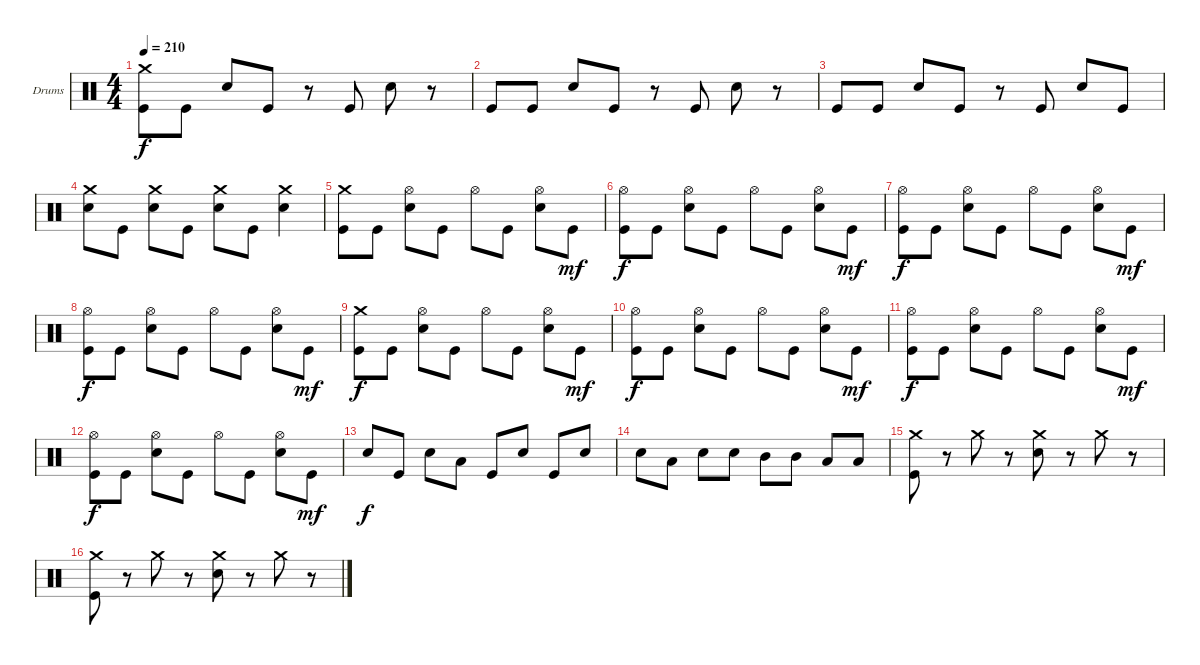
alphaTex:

\bracketExtendMode groupsimilarinstruments
\firstSystemTrackNameOrientation horizontal
\otherSystemsTrackNameOrientation horizontal
\track ("Drumkit" "Drums") {instrument percussion}
\staff {score}
\articulation defaults
\ts (4 4)
\tempo 210
\clef neutral
\ks c
("Crash medium (hit)" "Kick (hit)").8{dy f} "Kick (hit)".8 "Snare (hit) 2".8 "Kick (hit)".8 r.8 "Kick (hit)".8 "Snare (hit) 2".8 r.8 |
"Kick (hit)".8 "Kick (hit)".8 "Snare (hit) 2".8 "Kick (hit)".8 r.8 "Kick (hit)".8 "Snare (hit) 2".8 r.8 |
"Kick (hit)".8 "Kick (hit)".8 "Snare (hit) 2".8 "Kick (hit)".8 r.8 "Kick (hit)".8 "Snare (hit) 2".8 "Kick (hit)".8 |
("Crash medium (hit)" "Snare (hit) 2").8 "Kick (hit)".8 ("Crash medium (hit)" "Snare (hit) 2").8 "Kick (hit)".8 ("Crash medium (hit)" "Snare (hit) 2").8 "Kick (hit)".8 ("Crash medium (hit)" "Snare (hit) 2").4 |
("Crash medium (hit)" "Kick (hit)").8 "Kick (hit)".8 ("Hi-Hat (open)" "Snare (hit) 2").8 "Kick (hit)".8 "Hi-Hat (open)".8 "Kick (hit)".8 ("Hi-Hat (open)" "Snare (hit) 2").8 "Kick (hit)".8{dy mf} |
("Hi-Hat (open)" "Kick (hit)").8{dy f} "Kick (hit)".8 ("Hi-Hat (open)" "Snare (hit) 2").8 "Kick (hit)".8 "Hi-Hat (open)".8 "Kick (hit)".8 ("Hi-Hat (open)" "Snare (hit) 2").8 "Kick (hit)".8{dy mf} |
("Hi-Hat (open)" "Kick (hit)").8{dy f} "Kick (hit)".8 ("Hi-Hat (open)" "Snare (hit) 2").8 "Kick (hit)".8 "Hi-Hat (open)".8 "Kick (hit)".8 ("Hi-Hat (open)" "Snare (hit) 2").8 "Kick (hit)".8{dy mf} |
("Hi-Hat (open)" "Kick (hit)").8{dy f} "Kick (hit)".8 ("Hi-Hat (open)" "Snare (hit) 2").8 "Kick (hit)".8 "Hi-Hat (open)".8 "Kick (hit)".8 ("Hi-Hat (open)" "Snare (hit) 2").8 "Kick (hit)".8{dy mf} |
("Crash medium (hit)" "Kick (hit)").8{dy f} "Kick (hit)".8 ("Hi-Hat (open)" "Snare (hit) 2").8 "Kick (hit)".8 "Hi-Hat (open)".8 "Kick (hit)".8 ("Hi-Hat (open)" "Snare (hit) 2").8 "Kick (hit)".8{dy mf} |
("Hi-Hat (open)" "Kick (hit)").8{dy f} "Kick (hit)".8 ("Hi-Hat (open)" "Snare (hit) 2").8 "Kick (hit)".8 "Hi-Hat (open)".8 "Kick (hit)".8 ("Hi-Hat (open)" "Snare (hit) 2").8 "Kick (hit)".8{dy mf} |
("Hi-Hat (open)" "Kick (hit)").8{dy f} "Kick (hit)".8 ("Hi-Hat (open)" "Snare (hit) 2").8 "Kick (hit)".8 "Hi-Hat (open)".8 "Kick (hit)".8 ("Hi-Hat (open)" "Snare (hit) 2").8 "Kick (hit)".8{dy mf} |
("Hi-Hat (open)" "Kick (hit)").8{dy f} "Kick (hit)".8 ("Hi-Hat (open)" "Snare (hit) 2").8 "Kick (hit)".8 "Hi-Hat (open)".8 "Kick (hit)".8 ("Hi-Hat (open)" "Snare (hit) 2").8 "Kick (hit)".8{dy mf} |
"Snare (hit) 2".8{dy f} "Kick (hit)".8 "Snare (hit) 2".8 "Low Tom (hit)".8 "Kick (hit)".8 "Snare (hit) 2".8 "Kick (hit)".8 "Snare (hit) 2".8 |
"Snare (hit) 2".8 "Low Tom (hit)".8 "Snare (hit) 2".8 "Snare (hit) 2".8 "Mid Tom (hit)".8 "Mid Tom (hit)".8 "Low Tom (hit)".8 "Low Tom (hit)".8 |
("Crash medium (hit)" "Kick (hit)").8 r.8 "Crash medium (hit)".8 r.8 ("Crash medium (hit)" "Snare (hit) 2").8 r.8 "Crash medium (hit)".8 r.8 |
("Crash medium (hit)" "Kick (hit)").8 r.8 "Crash medium (hit)".8 r.8 ("Crash medium (hit)" "Snare (hit) 2").8 r.8 "Crash medium (hit)".8 r.8
